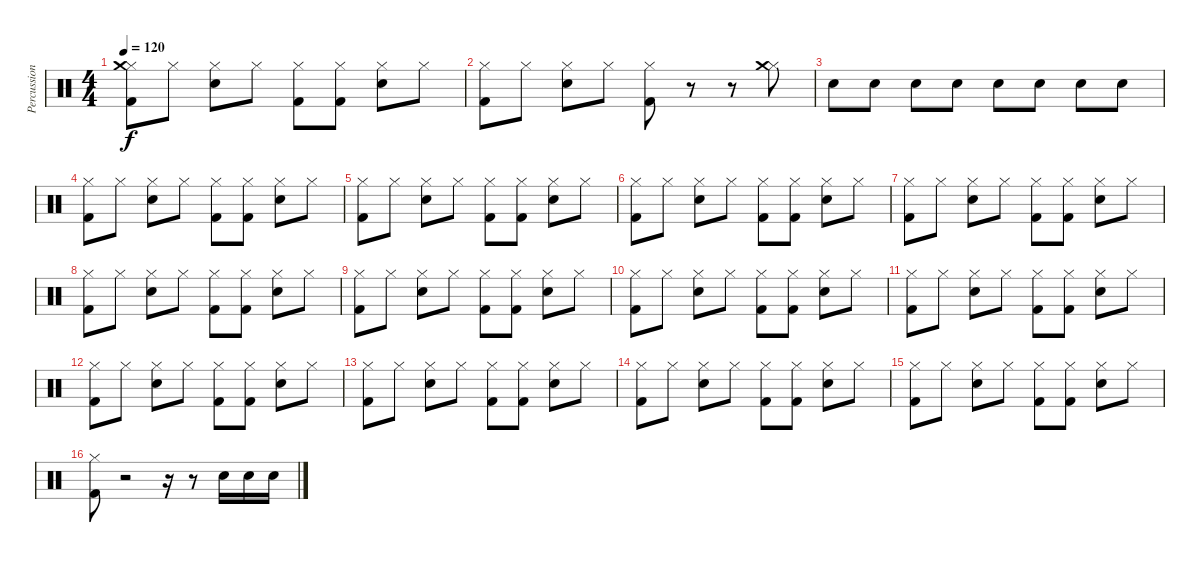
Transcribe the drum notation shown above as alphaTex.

\track ("Percussion" "Percussion") {instrument percussion}
\staff {score}
\articulation defaults
\ts (4 4)
\tempo 120
\clef neutral
\ks c
("Hi-Hat (closed)" "Kick (hit) 2" "Crash medium (hit)").8{dy f} "Hi-Hat (closed)".8 ("Hi-Hat (closed)" "Snare (hit) 2").8 "Hi-Hat (closed)".8 ("Hi-Hat (closed)" "Kick (hit) 2").8 ("Hi-Hat (closed)" "Kick (hit) 2").8 ("Hi-Hat (closed)" "Snare (hit) 2").8 "Hi-Hat (closed)".8 |
("Hi-Hat (closed)" "Kick (hit) 2").8 "Hi-Hat (closed)".8 ("Hi-Hat (closed)" "Snare (hit) 2").8 "Hi-Hat (closed)".8 ("Hi-Hat (closed)" "Kick (hit) 2").8 r.8 r.8 ("Hi-Hat (closed)" "Crash medium (hit)").8 |
"Snare (hit) 2".8 "Snare (hit) 2".8 "Snare (hit) 2".8 "Snare (hit) 2".8 "Snare (hit) 2".8 "Snare (hit) 2".8 "Snare (hit) 2".8 "Snare (hit) 2".8 |
("Hi-Hat (closed)" "Kick (hit) 2").8 "Hi-Hat (closed)".8 ("Hi-Hat (closed)" "Snare (hit) 2").8 "Hi-Hat (closed)".8 ("Hi-Hat (closed)" "Kick (hit) 2").8 ("Hi-Hat (closed)" "Kick (hit) 2").8 ("Hi-Hat (closed)" "Snare (hit) 2").8 "Hi-Hat (closed)".8 |
("Hi-Hat (closed)" "Kick (hit) 2").8 "Hi-Hat (closed)".8 ("Hi-Hat (closed)" "Snare (hit) 2").8 "Hi-Hat (closed)".8 ("Hi-Hat (closed)" "Kick (hit) 2").8 ("Hi-Hat (closed)" "Kick (hit) 2").8 ("Hi-Hat (closed)" "Snare (hit) 2").8 "Hi-Hat (closed)".8 |
("Hi-Hat (closed)" "Kick (hit) 2").8 "Hi-Hat (closed)".8 ("Hi-Hat (closed)" "Snare (hit) 2").8 "Hi-Hat (closed)".8 ("Hi-Hat (closed)" "Kick (hit) 2").8 ("Hi-Hat (closed)" "Kick (hit) 2").8 ("Hi-Hat (closed)" "Snare (hit) 2").8 "Hi-Hat (closed)".8 |
("Hi-Hat (closed)" "Kick (hit) 2").8 "Hi-Hat (closed)".8 ("Hi-Hat (closed)" "Snare (hit) 2").8 "Hi-Hat (closed)".8 ("Hi-Hat (closed)" "Kick (hit) 2").8 ("Hi-Hat (closed)" "Kick (hit) 2").8 ("Hi-Hat (closed)" "Snare (hit) 2").8 "Hi-Hat (closed)".8 |
("Hi-Hat (closed)" "Kick (hit) 2").8 "Hi-Hat (closed)".8 ("Hi-Hat (closed)" "Snare (hit) 2").8 "Hi-Hat (closed)".8 ("Hi-Hat (closed)" "Kick (hit) 2").8 ("Hi-Hat (closed)" "Kick (hit) 2").8 ("Hi-Hat (closed)" "Snare (hit) 2").8 "Hi-Hat (closed)".8 |
("Hi-Hat (closed)" "Kick (hit) 2").8 "Hi-Hat (closed)".8 ("Hi-Hat (closed)" "Snare (hit) 2").8 "Hi-Hat (closed)".8 ("Hi-Hat (closed)" "Kick (hit) 2").8 ("Hi-Hat (closed)" "Kick (hit) 2").8 ("Hi-Hat (closed)" "Snare (hit) 2").8 "Hi-Hat (closed)".8 |
("Hi-Hat (closed)" "Kick (hit) 2").8 "Hi-Hat (closed)".8 ("Hi-Hat (closed)" "Snare (hit) 2").8 "Hi-Hat (closed)".8 ("Hi-Hat (closed)" "Kick (hit) 2").8 ("Hi-Hat (closed)" "Kick (hit) 2").8 ("Hi-Hat (closed)" "Snare (hit) 2").8 "Hi-Hat (closed)".8 |
("Hi-Hat (closed)" "Kick (hit) 2").8 "Hi-Hat (closed)".8 ("Hi-Hat (closed)" "Snare (hit) 2").8 "Hi-Hat (closed)".8 ("Hi-Hat (closed)" "Kick (hit) 2").8 ("Hi-Hat (closed)" "Kick (hit) 2").8 ("Hi-Hat (closed)" "Snare (hit) 2").8 "Hi-Hat (closed)".8 |
("Hi-Hat (closed)" "Kick (hit) 2").8 "Hi-Hat (closed)".8 ("Hi-Hat (closed)" "Snare (hit) 2").8 "Hi-Hat (closed)".8 ("Hi-Hat (closed)" "Kick (hit) 2").8 ("Hi-Hat (closed)" "Kick (hit) 2").8 ("Hi-Hat (closed)" "Snare (hit) 2").8 "Hi-Hat (closed)".8 |
("Hi-Hat (closed)" "Kick (hit) 2").8 "Hi-Hat (closed)".8 ("Hi-Hat (closed)" "Snare (hit) 2").8 "Hi-Hat (closed)".8 ("Hi-Hat (closed)" "Kick (hit) 2").8 ("Hi-Hat (closed)" "Kick (hit) 2").8 ("Hi-Hat (closed)" "Snare (hit) 2").8 "Hi-Hat (closed)".8 |
("Hi-Hat (closed)" "Kick (hit) 2").8 "Hi-Hat (closed)".8 ("Hi-Hat (closed)" "Snare (hit) 2").8 "Hi-Hat (closed)".8 ("Hi-Hat (closed)" "Kick (hit) 2").8 ("Hi-Hat (closed)" "Kick (hit) 2").8 ("Hi-Hat (closed)" "Snare (hit) 2").8 "Hi-Hat (closed)".8 |
("Hi-Hat (closed)" "Kick (hit) 2").8 "Hi-Hat (closed)".8 ("Hi-Hat (closed)" "Snare (hit) 2").8 "Hi-Hat (closed)".8 ("Hi-Hat (closed)" "Kick (hit) 2").8 ("Hi-Hat (closed)" "Kick (hit) 2").8 ("Hi-Hat (closed)" "Snare (hit) 2").8 "Hi-Hat (closed)".8 |
("Hi-Hat (closed)" "Kick (hit) 2").8 r.2 r.16 r.8 "Snare (hit) 2".16 "Snare (hit) 2".16 "Snare (hit) 2".16
